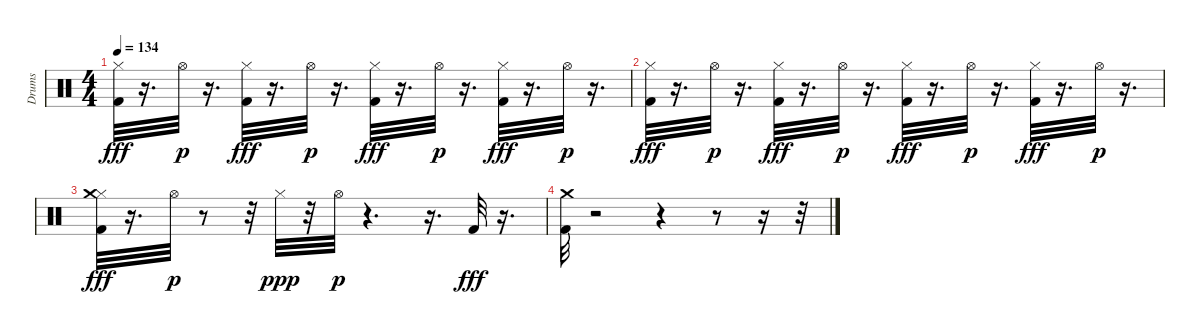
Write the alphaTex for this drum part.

\track ("Drums" "Drums") {instrument percussion}
\staff {score}
\articulation defaults
\ts (4 4)
\tempo 134
\clef neutral
\ks c
("Kick (hit) 2" "Hi-Hat (closed)").32{dy fff} r.16{d} "Hi-Hat (open)".32{dy p} r.16{d} ("Kick (hit) 2" "Hi-Hat (closed)").32{dy fff} r.16{d} "Hi-Hat (open)".32{dy p} r.16{d} ("Kick (hit) 2" "Hi-Hat (closed)").32{dy fff} r.16{d} "Hi-Hat (open)".32{dy p} r.16{d} ("Kick (hit) 2" "Hi-Hat (closed)").32{dy fff} r.16{d} "Hi-Hat (open)".32{dy p} r.16{d} |
("Kick (hit) 2" "Hi-Hat (closed)").32{dy fff} r.16{d} "Hi-Hat (open)".32{dy p} r.16{d} ("Kick (hit) 2" "Hi-Hat (closed)").32{dy fff} r.16{d} "Hi-Hat (open)".32{dy p} r.16{d} ("Kick (hit) 2" "Hi-Hat (closed)").32{dy fff} r.16{d} "Hi-Hat (open)".32{dy p} r.16{d} ("Kick (hit) 2" "Hi-Hat (closed)").32{dy fff} r.16{d} "Hi-Hat (open)".32{dy p} r.16{d} |
("Kick (hit) 2" "Hi-Hat (closed)" "Crash medium (hit)").32{dy fff} r.16{d} "Hi-Hat (open)".32{dy p} r.8 r.32 "Hi-Hat (closed)".32{dy ppp} r.32 "Hi-Hat (open)".32{dy p} r.4{d} r.16{d} "Kick (hit) 2".32{dy fff} r.16{d} |
("Kick (hit) 2" "Crash medium (hit)").32 r.2 r.4 r.8 r.16 r.32
